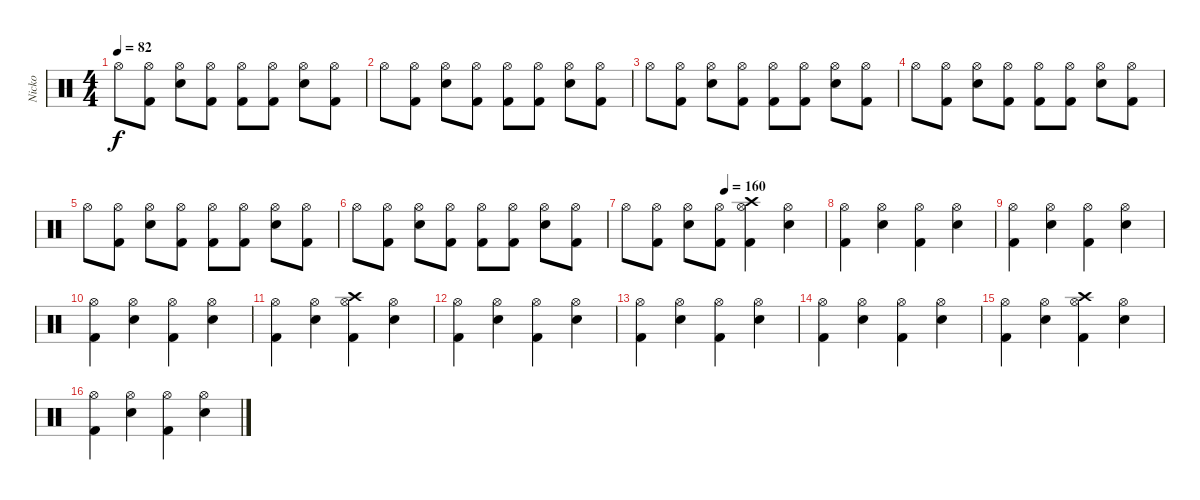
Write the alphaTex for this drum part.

\track ("Nicko" "Nicko") {instrument percussion}
\staff {score}
\articulation defaults
\ts (4 4)
\tempo 82
\clef neutral
\ks c "Hi-Hat (open)".8{dy f}
("Kick (hit) 2" "Hi-Hat (open)").8 ("Snare (hit) 2" "Hi-Hat (open)").8 ("Kick (hit) 2" "Hi-Hat (open)").8 ("Kick (hit) 2" "Hi-Hat (open)").8 ("Kick (hit) 2" "Hi-Hat (open)").8 ("Snare (hit) 2" "Hi-Hat (open)").8 ("Kick (hit) 2" "Hi-Hat (open)").8 |
"Hi-Hat (open)".8 ("Kick (hit) 2" "Hi-Hat (open)").8 ("Snare (hit) 2" "Hi-Hat (open)").8 ("Kick (hit) 2" "Hi-Hat (open)").8 ("Kick (hit) 2" "Hi-Hat (open)").8 ("Kick (hit) 2" "Hi-Hat (open)").8 ("Snare (hit) 2" "Hi-Hat (open)").8 ("Kick (hit) 2" "Hi-Hat (open)").8 |
"Hi-Hat (open)".8 ("Kick (hit) 2" "Hi-Hat (open)").8 ("Snare (hit) 2" "Hi-Hat (open)").8 ("Kick (hit) 2" "Hi-Hat (open)").8 ("Kick (hit) 2" "Hi-Hat (open)").8 ("Kick (hit) 2" "Hi-Hat (open)").8 ("Snare (hit) 2" "Hi-Hat (open)").8 ("Kick (hit) 2" "Hi-Hat (open)").8 |
"Hi-Hat (open)".8 ("Kick (hit) 2" "Hi-Hat (open)").8 ("Snare (hit) 2" "Hi-Hat (open)").8 ("Kick (hit) 2" "Hi-Hat (open)").8 ("Kick (hit) 2" "Hi-Hat (open)").8 ("Kick (hit) 2" "Hi-Hat (open)").8 ("Snare (hit) 2" "Hi-Hat (open)").8 ("Kick (hit) 2" "Hi-Hat (open)").8 |
"Hi-Hat (open)".8 ("Kick (hit) 2" "Hi-Hat (open)").8 ("Snare (hit) 2" "Hi-Hat (open)").8 ("Kick (hit) 2" "Hi-Hat (open)").8 ("Kick (hit) 2" "Hi-Hat (open)").8 ("Kick (hit) 2" "Hi-Hat (open)").8 ("Snare (hit) 2" "Hi-Hat (open)").8 ("Kick (hit) 2" "Hi-Hat (open)").8 |
"Hi-Hat (open)".8 ("Kick (hit) 2" "Hi-Hat (open)").8 ("Snare (hit) 2" "Hi-Hat (open)").8 ("Kick (hit) 2" "Hi-Hat (open)").8 ("Kick (hit) 2" "Hi-Hat (open)").8 ("Kick (hit) 2" "Hi-Hat (open)").8 ("Snare (hit) 2" "Hi-Hat (open)").8 ("Kick (hit) 2" "Hi-Hat (open)").8 |
\tempo (160 0.5)
"Hi-Hat (open)".8 ("Kick (hit) 2" "Hi-Hat (open)").8 ("Snare (hit) 2" "Hi-Hat (open)").8 ("Kick (hit) 2" "Hi-Hat (open)").8 ("Kick (hit) 2" "Hi-Hat (open)" "Crash high (hit)").4 ("Snare (hit) 2" "Hi-Hat (open)").4 |
("Kick (hit) 2" "Hi-Hat (open)").4 ("Snare (hit) 2" "Hi-Hat (open)").4 ("Kick (hit) 2" "Hi-Hat (open)").4 ("Snare (hit) 2" "Hi-Hat (open)").4 |
("Kick (hit) 2" "Hi-Hat (open)").4 ("Snare (hit) 2" "Hi-Hat (open)").4 ("Kick (hit) 2" "Hi-Hat (open)").4 ("Snare (hit) 2" "Hi-Hat (open)").4 |
("Kick (hit) 2" "Hi-Hat (open)").4 ("Snare (hit) 2" "Hi-Hat (open)").4 ("Kick (hit) 2" "Hi-Hat (open)").4 ("Snare (hit) 2" "Hi-Hat (open)").4 |
("Kick (hit) 2" "Hi-Hat (open)").4 ("Snare (hit) 2" "Hi-Hat (open)").4 ("Kick (hit) 2" "Hi-Hat (open)" "Crash high (hit)").4 ("Snare (hit) 2" "Hi-Hat (open)").4 |
("Kick (hit) 2" "Hi-Hat (open)").4 ("Snare (hit) 2" "Hi-Hat (open)").4 ("Kick (hit) 2" "Hi-Hat (open)").4 ("Snare (hit) 2" "Hi-Hat (open)").4 |
("Kick (hit) 2" "Hi-Hat (open)").4 ("Snare (hit) 2" "Hi-Hat (open)").4 ("Kick (hit) 2" "Hi-Hat (open)").4 ("Snare (hit) 2" "Hi-Hat (open)").4 |
("Kick (hit) 2" "Hi-Hat (open)").4 ("Snare (hit) 2" "Hi-Hat (open)").4 ("Kick (hit) 2" "Hi-Hat (open)").4 ("Snare (hit) 2" "Hi-Hat (open)").4 |
("Kick (hit) 2" "Hi-Hat (open)").4 ("Snare (hit) 2" "Hi-Hat (open)").4 ("Kick (hit) 2" "Hi-Hat (open)" "Crash high (hit)").4 ("Snare (hit) 2" "Hi-Hat (open)").4 |
("Kick (hit) 2" "Hi-Hat (open)").4 ("Snare (hit) 2" "Hi-Hat (open)").4 ("Kick (hit) 2" "Hi-Hat (open)").4 ("Snare (hit) 2" "Hi-Hat (open)").4
